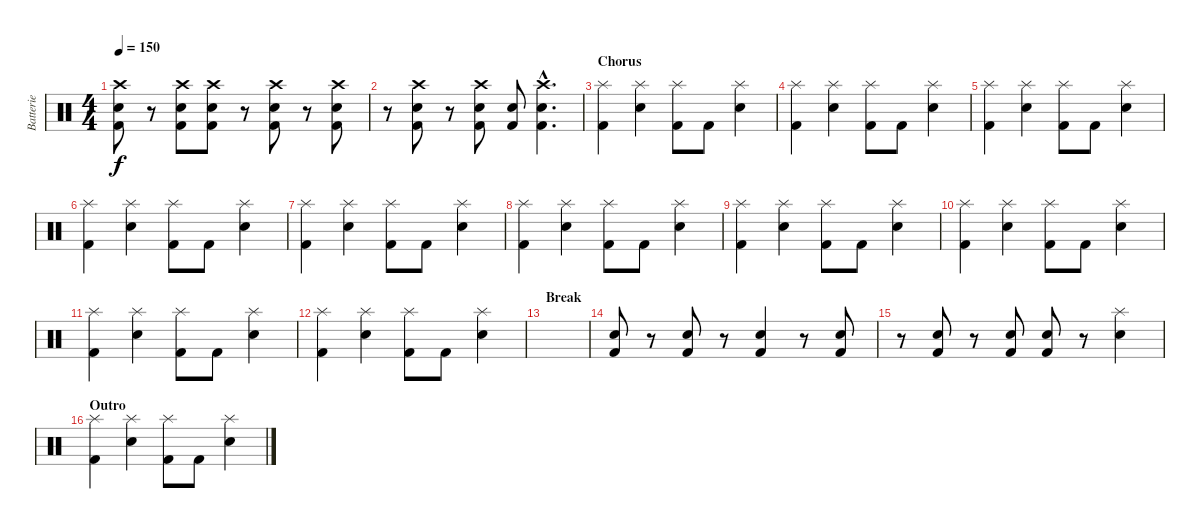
\track ("Batterie" "Batterie") {instrument percussion}
\staff {score}
\articulation defaults
\ts (4 4)
\tempo 150
\clef neutral
\ks c
("Crash high (hit)" "Electric Snare (hit)" "Kick (hit) 2").8{dy f} r.8 ("Crash high (hit)" "Electric Snare (hit)" "Kick (hit) 2").8 ("Crash high (hit)" "Electric Snare (hit)" "Kick (hit) 2").8 r.8 ("Crash high (hit)" "Electric Snare (hit)" "Kick (hit) 2").8 r.8 ("Crash high (hit)" "Electric Snare (hit)" "Kick (hit) 2").8 |
r.8 ("Crash high (hit)" "Electric Snare (hit)" "Kick (hit) 2").8 r.8 ("Crash high (hit)" "Electric Snare (hit)" "Kick (hit) 2").8 ("Electric Snare (hit)" "Kick (hit) 2").8 ("Crash high (hit)"{hac} "Electric Snare (hit)"{hac} "Kick (hit) 2"{hac}).4{d} |
\section ("" "Chorus")
("Splash (hit)" "Kick (hit) 2").4 ("Splash (hit)" "Electric Snare (hit)").4 ("Splash (hit)" "Kick (hit) 2").8 "Kick (hit) 2".8 ("Splash (hit)" "Electric Snare (hit)").4 |
("Splash (hit)" "Kick (hit) 2").4 ("Splash (hit)" "Electric Snare (hit)").4 ("Splash (hit)" "Kick (hit) 2").8 "Kick (hit) 2".8 ("Splash (hit)" "Electric Snare (hit)").4 |
("Splash (hit)" "Kick (hit) 2").4 ("Splash (hit)" "Electric Snare (hit)").4 ("Splash (hit)" "Kick (hit) 2").8 "Kick (hit) 2".8 ("Splash (hit)" "Electric Snare (hit)").4 |
("Splash (hit)" "Kick (hit) 2").4 ("Splash (hit)" "Electric Snare (hit)").4 ("Splash (hit)" "Kick (hit) 2").8 "Kick (hit) 2".8 ("Splash (hit)" "Electric Snare (hit)").4 |
("Splash (hit)" "Kick (hit) 2").4 ("Splash (hit)" "Electric Snare (hit)").4 ("Splash (hit)" "Kick (hit) 2").8 "Kick (hit) 2".8 ("Splash (hit)" "Electric Snare (hit)").4 |
("Splash (hit)" "Kick (hit) 2").4 ("Splash (hit)" "Electric Snare (hit)").4 ("Splash (hit)" "Kick (hit) 2").8 "Kick (hit) 2".8 ("Splash (hit)" "Electric Snare (hit)").4 |
("Splash (hit)" "Kick (hit) 2").4 ("Splash (hit)" "Electric Snare (hit)").4 ("Splash (hit)" "Kick (hit) 2").8 "Kick (hit) 2".8 ("Splash (hit)" "Electric Snare (hit)").4 |
("Splash (hit)" "Kick (hit) 2").4 ("Splash (hit)" "Electric Snare (hit)").4 ("Splash (hit)" "Kick (hit) 2").8 "Kick (hit) 2".8 ("Splash (hit)" "Electric Snare (hit)").4 |
("Splash (hit)" "Kick (hit) 2").4 ("Splash (hit)" "Electric Snare (hit)").4 ("Splash (hit)" "Kick (hit) 2").8 "Kick (hit) 2".8 ("Splash (hit)" "Electric Snare (hit)").4 |
("Splash (hit)" "Kick (hit) 2").4 ("Splash (hit)" "Electric Snare (hit)").4 ("Splash (hit)" "Kick (hit) 2").8 "Kick (hit) 2".8 ("Splash (hit)" "Electric Snare (hit)").4 |
\section ("" "Break")
|
("Electric Snare (hit)" "Kick (hit) 2").8 r.8 ("Electric Snare (hit)" "Kick (hit) 2").8 r.8 ("Electric Snare (hit)" "Kick (hit) 2").4 r.8 ("Electric Snare (hit)" "Kick (hit) 2").8 |
r.8 ("Electric Snare (hit)" "Kick (hit) 2").8 r.8 ("Electric Snare (hit)" "Kick (hit) 2").8 ("Electric Snare (hit)" "Kick (hit) 2").8 r.8 ("Splash (hit)" "Electric Snare (hit)").4 |
\section ("" "Outro")
("Splash (hit)" "Kick (hit) 2").4 ("Splash (hit)" "Electric Snare (hit)").4 ("Splash (hit)" "Kick (hit) 2").8 "Kick (hit) 2".8 ("Splash (hit)" "Electric Snare (hit)").4
